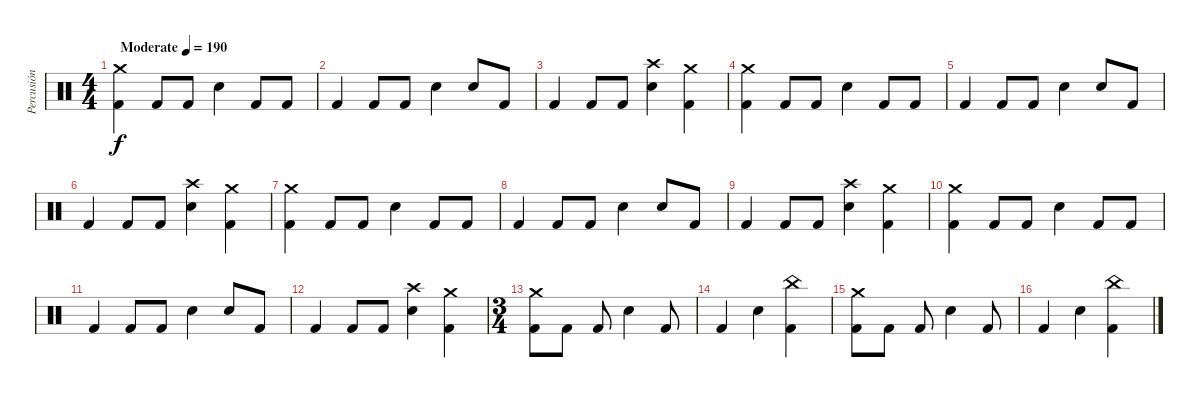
\track ("Percusión" "Percusión") {instrument percussion}
\staff {score}
\articulation defaults
\ts (4 4)
\tempo (190 "Moderate")
\clef neutral
\ks c
("Crash medium (hit)" "Kick (hit) 2").4{dy f} "Kick (hit) 2".8 "Kick (hit) 2".8 "Electric Snare (hit)".4 "Kick (hit) 2".8 "Kick (hit) 2".8 |
"Kick (hit) 2".4 "Kick (hit) 2".8 "Kick (hit) 2".8 "Electric Snare (hit)".4 "Electric Snare (hit)".8 "Kick (hit) 2".8 |
"Kick (hit) 2".4 "Kick (hit) 2".8 "Kick (hit) 2".8 ("Crash high (hit)" "Electric Snare (hit)").4 ("Crash medium (hit)" "Kick (hit) 2").4 |
("Crash medium (hit)" "Kick (hit) 2").4 "Kick (hit) 2".8 "Kick (hit) 2".8 "Electric Snare (hit)".4 "Kick (hit) 2".8 "Kick (hit) 2".8 |
"Kick (hit) 2".4 "Kick (hit) 2".8 "Kick (hit) 2".8 "Electric Snare (hit)".4 "Electric Snare (hit)".8 "Kick (hit) 2".8 |
"Kick (hit) 2".4 "Kick (hit) 2".8 "Kick (hit) 2".8 ("Crash high (hit)" "Electric Snare (hit)").4 ("Crash medium (hit)" "Kick (hit) 2").4 |
("Crash medium (hit)" "Kick (hit) 2").4 "Kick (hit) 2".8 "Kick (hit) 2".8 "Electric Snare (hit)".4 "Kick (hit) 2".8 "Kick (hit) 2".8 |
"Kick (hit) 2".4 "Kick (hit) 2".8 "Kick (hit) 2".8 "Electric Snare (hit)".4 "Electric Snare (hit)".8 "Kick (hit) 2".8 |
"Kick (hit) 2".4 "Kick (hit) 2".8 "Kick (hit) 2".8 ("Crash high (hit)" "Electric Snare (hit)").4 ("Crash medium (hit)" "Kick (hit) 2").4 |
("Crash medium (hit)" "Kick (hit) 2").4 "Kick (hit) 2".8 "Kick (hit) 2".8 "Electric Snare (hit)".4 "Kick (hit) 2".8 "Kick (hit) 2".8 |
"Kick (hit) 2".4 "Kick (hit) 2".8 "Kick (hit) 2".8 "Electric Snare (hit)".4 "Electric Snare (hit)".8 "Kick (hit) 2".8 |
"Kick (hit) 2".4 "Kick (hit) 2".8 "Kick (hit) 2".8 ("Crash high (hit)" "Electric Snare (hit)").4 ("Crash medium (hit)" "Kick (hit) 2").4 |
\ts (3 4)
("Crash medium (hit)" "Kick (hit) 2").8 "Kick (hit) 2".8 "Kick (hit) 2".8 "Electric Snare (hit)".4 "Kick (hit) 2".8 |
"Kick (hit) 2".4 "Electric Snare (hit)".4 ("China (hit)" "Kick (hit) 2").4 |
("Crash medium (hit)" "Kick (hit) 2").8 "Kick (hit) 2".8 "Kick (hit) 2".8 "Electric Snare (hit)".4 "Kick (hit) 2".8 |
"Kick (hit) 2".4 "Electric Snare (hit)".4 ("China (hit)" "Kick (hit) 2").4
